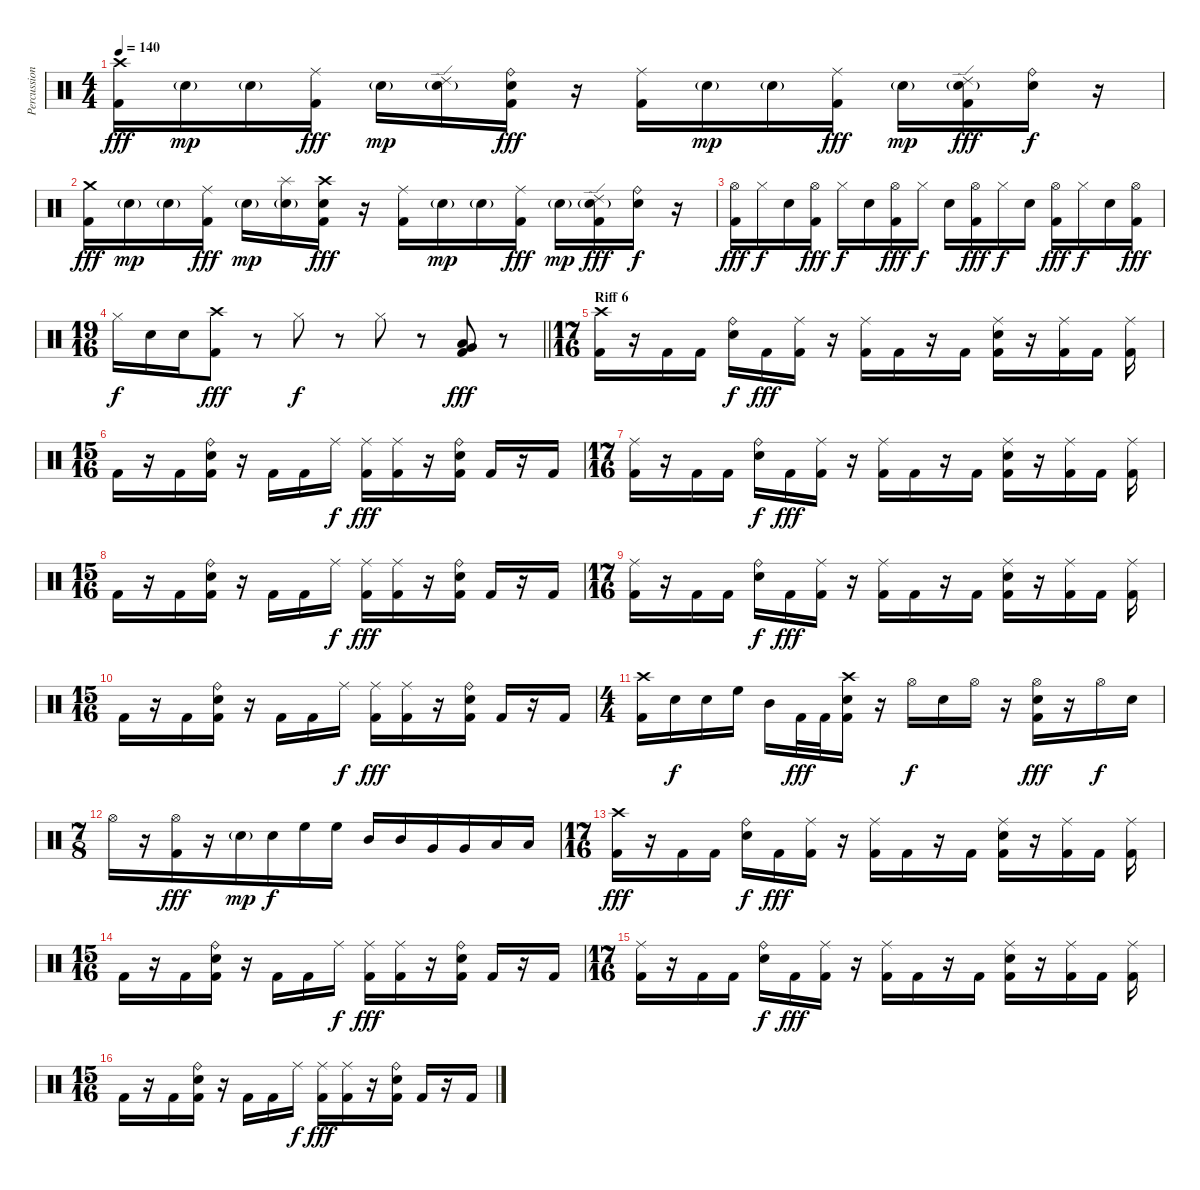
\track ("Percussion" "Percussion") {instrument percussion}
\staff {score}
\articulation defaults
\ts (4 4)
\tempo 140
\clef neutral
\ks c
("Crash high (hit)" "Kick (hit) 2").16{dy fff} "Electric Snare (hit)"{g}.16{dy mp} "Electric Snare (hit)"{g}.16 ("Ride (middle)" "Kick (hit) 2").16{dy fff} "Electric Snare (hit)"{g}.16{dy mp} ("Ride (edge) 2" "Electric Snare (hit)"{g}).16 ("Ride (bell)" "Electric Snare (hit)" "Kick (hit) 2").16{dy fff} r.16 ("Ride (middle)" "Kick (hit) 2").16 "Electric Snare (hit)"{g}.16{dy mp} "Electric Snare (hit)"{g}.16 ("Ride (middle)" "Kick (hit) 2").16{dy fff} "Electric Snare (hit)"{g}.16{dy mp} ("Ride (edge) 2" "Electric Snare (hit)"{g} "Kick (hit) 2").16{dy fff} ("Ride (bell)" "Electric Snare (hit)").16{dy f} r.16 |
("Crash medium (hit)" "Kick (hit) 2").16{dy fff} "Electric Snare (hit)"{g}.16{dy mp} "Electric Snare (hit)"{g}.16 ("Ride (middle)" "Kick (hit) 2").16{dy fff} "Electric Snare (hit)"{g}.16{dy mp} ("Splash (hit)" "Electric Snare (hit)"{g}).16 ("Crash high (hit)" "Electric Snare (hit)" "Kick (hit) 2").16{dy fff} r.16 ("Ride (middle)" "Kick (hit) 2").16 "Electric Snare (hit)"{g}.16{dy mp} "Electric Snare (hit)"{g}.16 ("Ride (middle)" "Kick (hit) 2").16{dy fff} "Electric Snare (hit)"{g}.16{dy mp} ("Ride (edge) 2" "Electric Snare (hit)"{g} "Kick (hit) 2").16{dy fff} ("Ride (bell)" "Electric Snare (hit)").16{dy f} r.16 |
("Hi-Hat (open)" "Kick (hit) 2").16{dy fff} "Hi-Hat (closed)".16{dy f} "Electric Snare (hit)".16 ("Hi-Hat (open)" "Kick (hit) 2").16{dy fff} "Hi-Hat (closed)".16{dy f} "Electric Snare (hit)".16 ("Hi-Hat (open)" "Kick (hit) 2").16{dy fff} "Hi-Hat (closed)".16{dy f} "Electric Snare (hit)".16 ("Hi-Hat (open)" "Kick (hit) 2").16{dy fff} "Hi-Hat (closed)".16{dy f} "Electric Snare (hit)".16 ("Hi-Hat (open)" "Kick (hit) 2").16{dy fff} "Hi-Hat (closed)".16{dy f} "Electric Snare (hit)".16 ("Hi-Hat (open)" "Kick (hit) 2").16{dy fff} |
\ts (19 16)
\barLineRight lightlight "Hi-Hat (closed)".16{dy f} "Electric Snare (hit)".16 "Electric Snare (hit)".16
("Crash high (hit)" "Kick (hit) 2").8{dy fff} r.8 "Hi-Hat (closed)".8{dy f} r.8 "Hi-Hat (closed)".8 r.8 ("Very Low Tom (hit)" "Low Floor Tom (hit)" "Kick (hit) 2").8{dy fff} r.8 |
\ts (17 16)
\section ("" "Riff 6")
("Crash high (hit)" "Kick (hit) 2").16 r.16 "Kick (hit) 2".16 "Kick (hit) 2".16 ("Ride (bell)" "Electric Snare (hit)").16{dy f} "Kick (hit) 2".16{dy fff} ("Ride (middle)" "Kick (hit) 2").16 r.16 ("Ride (middle)" "Kick (hit) 2").16 "Kick (hit) 2".16 r.16 "Kick (hit) 2".16 ("Ride (middle)" "Electric Snare (hit)" "Kick (hit) 2").16 r.16 ("Ride (middle)" "Kick (hit) 2").16 "Kick (hit) 2".16 ("Ride (middle)" "Kick (hit) 2").16 |
\ts (15 16)
"Kick (hit) 2".16 r.16 "Kick (hit) 2".16 ("Ride (bell)" "Electric Snare (hit)" "Kick (hit) 2").16 r.16 "Kick (hit) 2".16 "Kick (hit) 2".16 "Ride (middle)".16{dy f} ("Ride (middle)" "Kick (hit) 2").16{dy fff} ("Ride (middle)" "Kick (hit) 2").16 r.16 ("Ride (bell)" "Electric Snare (hit)" "Kick (hit) 2").16 "Kick (hit) 2".16 r.16 "Kick (hit) 2".16 |
\ts (17 16)
("Ride (middle)" "Kick (hit) 2").16 r.16 "Kick (hit) 2".16 "Kick (hit) 2".16 ("Ride (bell)" "Electric Snare (hit)").16{dy f} "Kick (hit) 2".16{dy fff} ("Ride (middle)" "Kick (hit) 2").16 r.16 ("Ride (middle)" "Kick (hit) 2").16 "Kick (hit) 2".16 r.16 "Kick (hit) 2".16 ("Ride (middle)" "Electric Snare (hit)" "Kick (hit) 2").16 r.16 ("Ride (middle)" "Kick (hit) 2").16 "Kick (hit) 2".16 ("Ride (middle)" "Kick (hit) 2").16 |
\ts (15 16)
"Kick (hit) 2".16 r.16 "Kick (hit) 2".16 ("Ride (bell)" "Electric Snare (hit)" "Kick (hit) 2").16 r.16 "Kick (hit) 2".16 "Kick (hit) 2".16 "Ride (middle)".16{dy f} ("Ride (middle)" "Kick (hit) 2").16{dy fff} ("Ride (middle)" "Kick (hit) 2").16 r.16 ("Ride (bell)" "Electric Snare (hit)" "Kick (hit) 2").16 "Kick (hit) 2".16 r.16 "Kick (hit) 2".16 |
\ts (17 16)
("Ride (middle)" "Kick (hit) 2").16 r.16 "Kick (hit) 2".16 "Kick (hit) 2".16 ("Ride (bell)" "Electric Snare (hit)").16{dy f} "Kick (hit) 2".16{dy fff} ("Ride (middle)" "Kick (hit) 2").16 r.16 ("Ride (middle)" "Kick (hit) 2").16 "Kick (hit) 2".16 r.16 "Kick (hit) 2".16 ("Ride (middle)" "Electric Snare (hit)" "Kick (hit) 2").16 r.16 ("Ride (middle)" "Kick (hit) 2").16 "Kick (hit) 2".16 ("Ride (middle)" "Kick (hit) 2").16 |
\ts (15 16)
"Kick (hit) 2".16 r.16 "Kick (hit) 2".16 ("Ride (bell)" "Electric Snare (hit)" "Kick (hit) 2").16 r.16 "Kick (hit) 2".16 "Kick (hit) 2".16 "Ride (middle)".16{dy f} ("Ride (middle)" "Kick (hit) 2").16{dy fff} ("Ride (middle)" "Kick (hit) 2").16 r.16 ("Ride (bell)" "Electric Snare (hit)" "Kick (hit) 2").16 "Kick (hit) 2".16 r.16 "Kick (hit) 2".16 |
\ts (4 4)
("Crash high (hit)" "Kick (hit) 2").16 "Electric Snare (hit)".16{dy f} "Electric Snare (hit)".16 "High Floor Tom (hit)".16 "Mid Tom (hit)".16 "Kick (hit) 2".32{dy fff} "Kick (hit) 2".32 ("Crash high (hit)" "Electric Snare (hit)" "Kick (hit) 2").16 r.16 "Hi-Hat (open)".16{dy f} "Electric Snare (hit)".16 "Hi-Hat (open)".16 r.16 ("Hi-Hat (open)" "Electric Snare (hit)" "Kick (hit) 2").16{dy fff} r.16 "Hi-Hat (open)".16{dy f} "Electric Snare (hit)".16 |
\ts (7 8)
"Hi-Hat (open)".16 r.16 ("Hi-Hat (open)" "Kick (hit) 2").16{dy fff} r.16 "Electric Snare (hit)"{g}.16{dy mp} "Electric Snare (hit)".16{dy f} "High Floor Tom (hit)".16 "High Floor Tom (hit)".16 "Mid Tom (hit)".16 "Mid Tom (hit)".16 "Very Low Tom (hit)".16 "Very Low Tom (hit)".16 "Low Floor Tom (hit)".16 "Low Floor Tom (hit)".16 |
\ts (17 16)
("Crash high (hit)" "Kick (hit) 2").16{dy fff} r.16 "Kick (hit) 2".16 "Kick (hit) 2".16 ("Ride (bell)" "Electric Snare (hit)").16{dy f} "Kick (hit) 2".16{dy fff} ("Ride (middle)" "Kick (hit) 2").16 r.16 ("Ride (middle)" "Kick (hit) 2").16 "Kick (hit) 2".16 r.16 "Kick (hit) 2".16 ("Ride (middle)" "Electric Snare (hit)" "Kick (hit) 2").16 r.16 ("Ride (middle)" "Kick (hit) 2").16 "Kick (hit) 2".16 ("Ride (middle)" "Kick (hit) 2").16 |
\ts (15 16)
"Kick (hit) 2".16 r.16 "Kick (hit) 2".16 ("Ride (bell)" "Electric Snare (hit)" "Kick (hit) 2").16 r.16 "Kick (hit) 2".16 "Kick (hit) 2".16 "Ride (middle)".16{dy f} ("Ride (middle)" "Kick (hit) 2").16{dy fff} ("Ride (middle)" "Kick (hit) 2").16 r.16 ("Ride (bell)" "Electric Snare (hit)" "Kick (hit) 2").16 "Kick (hit) 2".16 r.16 "Kick (hit) 2".16 |
\ts (17 16)
("Ride (middle)" "Kick (hit) 2").16 r.16 "Kick (hit) 2".16 "Kick (hit) 2".16 ("Ride (bell)" "Electric Snare (hit)").16{dy f} "Kick (hit) 2".16{dy fff} ("Ride (middle)" "Kick (hit) 2").16 r.16 ("Ride (middle)" "Kick (hit) 2").16 "Kick (hit) 2".16 r.16 "Kick (hit) 2".16 ("Ride (middle)" "Electric Snare (hit)" "Kick (hit) 2").16 r.16 ("Ride (middle)" "Kick (hit) 2").16 "Kick (hit) 2".16 ("Ride (middle)" "Kick (hit) 2").16 |
\ts (15 16)
"Kick (hit) 2".16 r.16 "Kick (hit) 2".16 ("Ride (bell)" "Electric Snare (hit)" "Kick (hit) 2").16 r.16 "Kick (hit) 2".16 "Kick (hit) 2".16 "Ride (middle)".16{dy f} ("Ride (middle)" "Kick (hit) 2").16{dy fff} ("Ride (middle)" "Kick (hit) 2").16 r.16 ("Ride (bell)" "Electric Snare (hit)" "Kick (hit) 2").16 "Kick (hit) 2".16 r.16 "Kick (hit) 2".16
